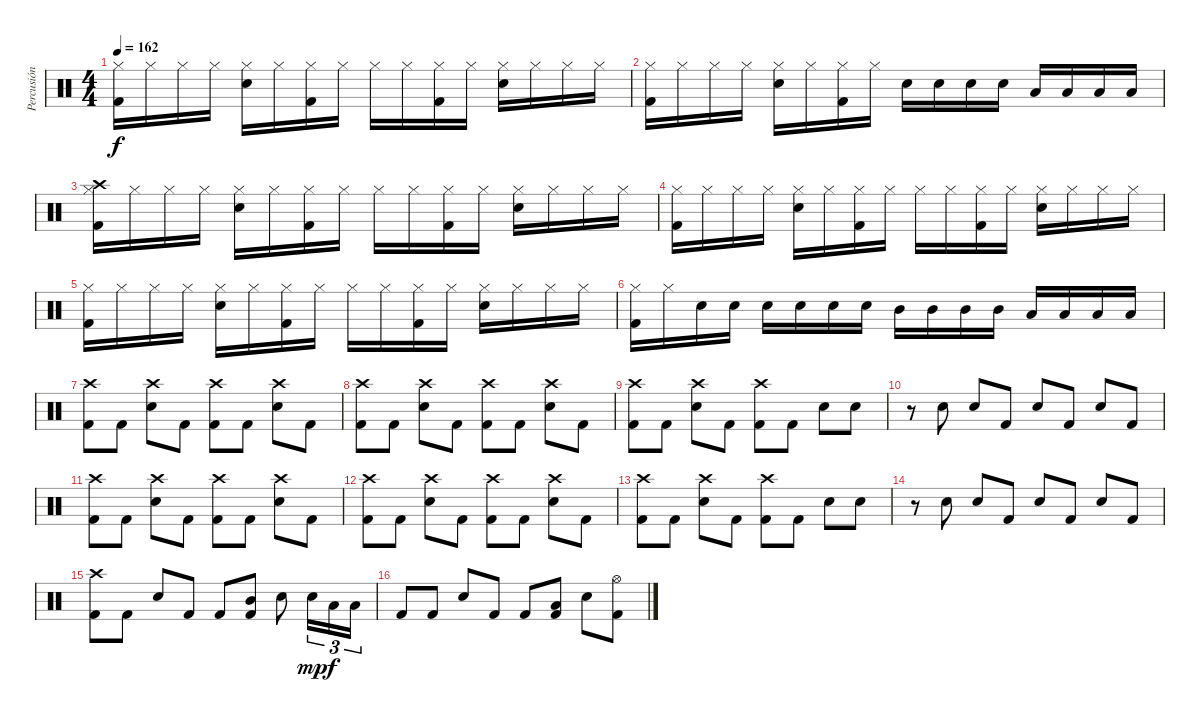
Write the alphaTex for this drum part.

\track ("Percusión" "Percusión") {instrument percussion}
\staff {score}
\articulation defaults
\ts (4 4)
\tempo 162
\clef neutral
\ks c
("Hi-Hat (closed)" "Kick (hit) 2").16{dy f} "Hi-Hat (closed)".16 "Hi-Hat (closed)".16 "Hi-Hat (closed)".16 ("Hi-Hat (closed)" "Snare (hit) 2").16 "Hi-Hat (closed)".16 ("Hi-Hat (closed)" "Kick (hit) 2").16 "Hi-Hat (closed)".16 "Hi-Hat (closed)".16 "Hi-Hat (closed)".16 ("Hi-Hat (closed)" "Kick (hit) 2").16 "Hi-Hat (closed)".16 ("Hi-Hat (closed)" "Snare (hit) 2").16 "Hi-Hat (closed)".16 "Hi-Hat (closed)".16 "Hi-Hat (closed)".16 |
("Hi-Hat (closed)" "Kick (hit) 2").16 "Hi-Hat (closed)".16 "Hi-Hat (closed)".16 "Hi-Hat (closed)".16 ("Hi-Hat (closed)" "Snare (hit) 2").16 "Hi-Hat (closed)".16 ("Hi-Hat (closed)" "Kick (hit) 2").16 "Hi-Hat (closed)".16 "Snare (hit) 2".16 "Snare (hit) 2".16 "Snare (hit) 2".16 "Snare (hit) 2".16 "Low Tom (hit)".16 "Low Tom (hit)".16 "Low Tom (hit)".16 "Low Tom (hit)".16 |
("Crash high (hit)" "Hi-Hat (closed)" "Kick (hit) 2").16 "Hi-Hat (closed)".16 "Hi-Hat (closed)".16 "Hi-Hat (closed)".16 ("Hi-Hat (closed)" "Snare (hit) 2").16 "Hi-Hat (closed)".16 ("Hi-Hat (closed)" "Kick (hit) 2").16 "Hi-Hat (closed)".16 "Hi-Hat (closed)".16 "Hi-Hat (closed)".16 ("Hi-Hat (closed)" "Kick (hit) 2").16 "Hi-Hat (closed)".16 ("Hi-Hat (closed)" "Snare (hit) 2").16 "Hi-Hat (closed)".16 "Hi-Hat (closed)".16 "Hi-Hat (closed)".16 |
("Hi-Hat (closed)" "Kick (hit) 2").16 "Hi-Hat (closed)".16 "Hi-Hat (closed)".16 "Hi-Hat (closed)".16 ("Hi-Hat (closed)" "Snare (hit) 2").16 "Hi-Hat (closed)".16 ("Hi-Hat (closed)" "Kick (hit) 2").16 "Hi-Hat (closed)".16 "Hi-Hat (closed)".16 "Hi-Hat (closed)".16 ("Hi-Hat (closed)" "Kick (hit) 2").16 "Hi-Hat (closed)".16 ("Hi-Hat (closed)" "Snare (hit) 2").16 "Hi-Hat (closed)".16 "Hi-Hat (closed)".16 "Hi-Hat (closed)".16 |
("Hi-Hat (closed)" "Kick (hit) 2").16 "Hi-Hat (closed)".16 "Hi-Hat (closed)".16 "Hi-Hat (closed)".16 ("Hi-Hat (closed)" "Snare (hit) 2").16 "Hi-Hat (closed)".16 ("Hi-Hat (closed)" "Kick (hit) 2").16 "Hi-Hat (closed)".16 "Hi-Hat (closed)".16 "Hi-Hat (closed)".16 ("Hi-Hat (closed)" "Kick (hit) 2").16 "Hi-Hat (closed)".16 ("Hi-Hat (closed)" "Snare (hit) 2").16 "Hi-Hat (closed)".16 "Hi-Hat (closed)".16 "Hi-Hat (closed)".16 |
("Hi-Hat (closed)" "Kick (hit) 2").16 "Hi-Hat (closed)".16 "Snare (hit) 2".16 "Snare (hit) 2".16 "Snare (hit) 2".16 "Snare (hit) 2".16 "Snare (hit) 2".16 "Snare (hit) 2".16 "Mid Tom (hit)".16 "Mid Tom (hit)".16 "Mid Tom (hit)".16 "Mid Tom (hit)".16 "Low Tom (hit)".16 "Low Tom (hit)".16 "Low Tom (hit)".16 "Low Tom (hit)".16 |
("Crash high (hit)" "Kick (hit) 2").8 "Kick (hit) 2".8 ("Crash high (hit)" "Snare (hit) 2").8 "Kick (hit) 2".8 ("Crash high (hit)" "Kick (hit) 2").8 "Kick (hit) 2".8 ("Crash high (hit)" "Snare (hit) 2").8 "Kick (hit) 2".8 |
("Crash high (hit)" "Kick (hit) 2").8 "Kick (hit) 2".8 ("Crash high (hit)" "Snare (hit) 2").8 "Kick (hit) 2".8 ("Crash high (hit)" "Kick (hit) 2").8 "Kick (hit) 2".8 ("Crash high (hit)" "Snare (hit) 2").8 "Kick (hit) 2".8 |
("Crash high (hit)" "Kick (hit) 2").8 "Kick (hit) 2".8 ("Crash high (hit)" "Snare (hit) 2").8 "Kick (hit) 2".8 ("Crash high (hit)" "Kick (hit) 2").8 "Kick (hit) 2".8 "Snare (hit) 2".8 "Snare (hit) 2".8 |
r.8 "Snare (hit) 2".8 "Snare (hit) 2".8 "Kick (hit) 2".8 "Snare (hit) 2".8 "Kick (hit) 2".8 "Snare (hit) 2".8 "Kick (hit) 2".8 |
("Crash high (hit)" "Kick (hit) 2").8 "Kick (hit) 2".8 ("Crash high (hit)" "Snare (hit) 2").8 "Kick (hit) 2".8 ("Crash high (hit)" "Kick (hit) 2").8 "Kick (hit) 2".8 ("Crash high (hit)" "Snare (hit) 2").8 "Kick (hit) 2".8 |
("Crash high (hit)" "Kick (hit) 2").8 "Kick (hit) 2".8 ("Crash high (hit)" "Snare (hit) 2").8 "Kick (hit) 2".8 ("Crash high (hit)" "Kick (hit) 2").8 "Kick (hit) 2".8 ("Crash high (hit)" "Snare (hit) 2").8 "Kick (hit) 2".8 |
("Crash high (hit)" "Kick (hit) 2").8 "Kick (hit) 2".8 ("Crash high (hit)" "Snare (hit) 2").8 "Kick (hit) 2".8 ("Crash high (hit)" "Kick (hit) 2").8 "Kick (hit) 2".8 "Snare (hit) 2".8 "Snare (hit) 2".8 |
r.8 "Snare (hit) 2".8 "Snare (hit) 2".8 "Kick (hit) 2".8 "Snare (hit) 2".8 "Kick (hit) 2".8 "Snare (hit) 2".8 "Kick (hit) 2".8 |
("Crash high (hit)" "Kick (hit) 2").8 "Kick (hit) 2".8 "Snare (hit) 2".8 "Kick (hit) 2".8 "Kick (hit) 2".8 ("Kick (hit) 2" "Mid Tom (hit)").8 "Snare (hit) 2".8 "Snare (hit) 2".16{tu (3 2) dy mp} "Low Tom (hit)".16{tu (3 2) dy f} "Low Floor Tom (hit)".16{tu (3 2)} |
"Kick (hit) 2".8 "Kick (hit) 2".8 "Snare (hit) 2".8 "Kick (hit) 2".8 "Kick (hit) 2".8 ("Kick (hit) 2" "Low Tom (hit)").8 "Snare (hit) 2".8 ("Hi-Hat (open)" "Kick (hit) 2").8
